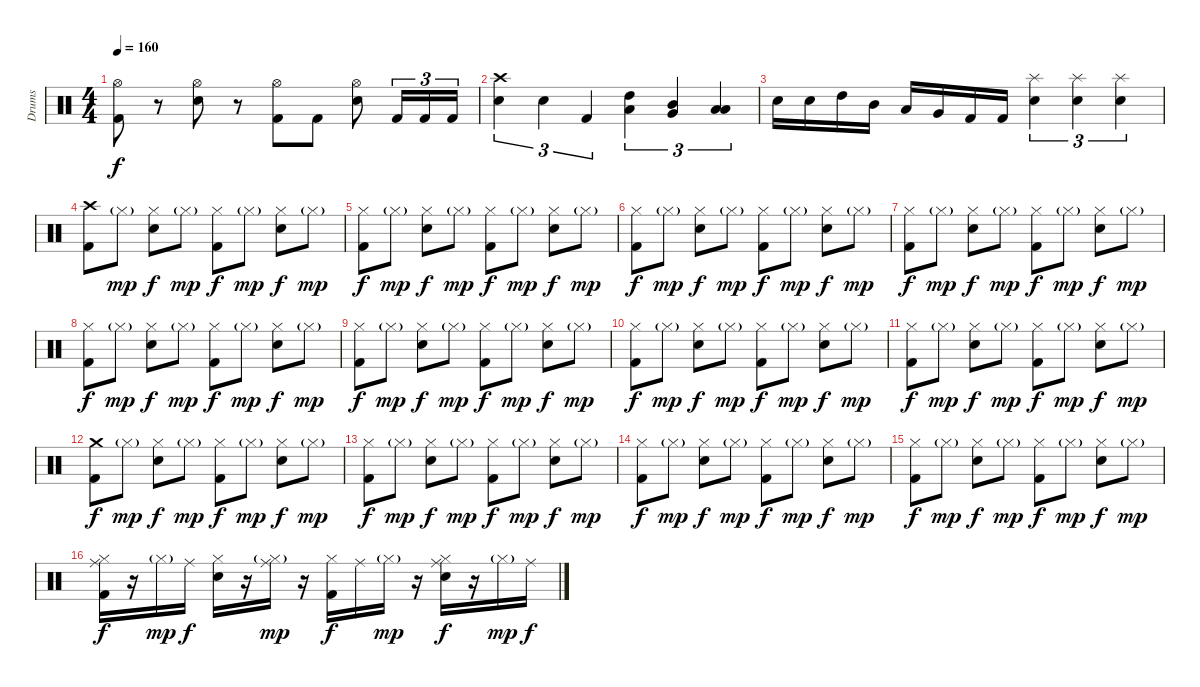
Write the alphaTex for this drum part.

\track ("Drums" "Drums") {instrument percussion}
\staff {score}
\articulation defaults
\ts (4 4)
\tempo 160
\clef neutral
\ks c
("Hi-Hat (open)" "Kick (hit) 2").8{dy f} r.8 ("Hi-Hat (open)" "Snare (hit) 2").8 r.8 ("Hi-Hat (open)" "Kick (hit) 2").8 "Kick (hit) 2".8 ("Hi-Hat (open)" "Snare (hit) 2").8 "Kick (hit) 2".16{tu (3 2)} "Kick (hit) 2".16{tu (3 2)} "Kick (hit) 2".16{tu (3 2)} |
("Crash high (hit)" "Snare (hit) 2").4{tu (3 2)} "Snare (hit) 2".4{tu (3 2)} "Kick (hit) 2".4{tu (3 2)} ("High Tom (hit)" "Low Tom (hit)").4{tu (3 2)} ("Mid Tom (hit)" "Very Low Tom (hit)").4{tu (3 2)} ("Low Tom (hit)" "Low Floor Tom (hit)").4{tu (3 2)} |
"Snare (hit) 2".16 "Snare (hit) 2".16 "High Tom (hit)".16 "Mid Tom (hit)".16 "Low Tom (hit)".16 "Very Low Tom (hit)".16 "Kick (hit) 2".16 "Kick (hit) 2".16 ("Splash (hit)" "Snare (hit) 2").4{tu (3 2)} ("Splash (hit)" "Snare (hit) 2").4{tu (3 2)} ("Splash (hit)" "Snare (hit) 2").4{tu (3 2)} |
("Crash high (hit)" "Kick (hit) 2").8 "Hi-Hat (closed)"{g}.8{dy mp} ("Hi-Hat (closed)" "Snare (hit) 2").8{dy f} "Hi-Hat (closed)"{g}.8{dy mp} ("Hi-Hat (closed)" "Kick (hit) 2").8{dy f} "Hi-Hat (closed)"{g}.8{dy mp} ("Hi-Hat (closed)" "Snare (hit) 2").8{dy f} "Hi-Hat (closed)"{g}.8{dy mp} |
("Hi-Hat (closed)" "Kick (hit) 2").8{dy f} "Hi-Hat (closed)"{g}.8{dy mp} ("Hi-Hat (closed)" "Snare (hit) 2").8{dy f} "Hi-Hat (closed)"{g}.8{dy mp} ("Hi-Hat (closed)" "Kick (hit) 2").8{dy f} "Hi-Hat (closed)"{g}.8{dy mp} ("Hi-Hat (closed)" "Snare (hit) 2").8{dy f} "Hi-Hat (closed)"{g}.8{dy mp} |
("Hi-Hat (closed)" "Kick (hit) 2").8{dy f} "Hi-Hat (closed)"{g}.8{dy mp} ("Hi-Hat (closed)" "Snare (hit) 2").8{dy f} "Hi-Hat (closed)"{g}.8{dy mp} ("Hi-Hat (closed)" "Kick (hit) 2").8{dy f} "Hi-Hat (closed)"{g}.8{dy mp} ("Hi-Hat (closed)" "Snare (hit) 2").8{dy f} "Hi-Hat (closed)"{g}.8{dy mp} |
("Hi-Hat (closed)" "Kick (hit) 2").8{dy f} "Hi-Hat (closed)"{g}.8{dy mp} ("Hi-Hat (closed)" "Snare (hit) 2").8{dy f} "Hi-Hat (closed)"{g}.8{dy mp} ("Hi-Hat (closed)" "Kick (hit) 2").8{dy f} "Hi-Hat (closed)"{g}.8{dy mp} ("Hi-Hat (closed)" "Snare (hit) 2").8{dy f} "Hi-Hat (closed)"{g}.8{dy mp} |
("Hi-Hat (closed)" "Kick (hit) 2").8{dy f} "Hi-Hat (closed)"{g}.8{dy mp} ("Hi-Hat (closed)" "Snare (hit) 2").8{dy f} "Hi-Hat (closed)"{g}.8{dy mp} ("Hi-Hat (closed)" "Kick (hit) 2").8{dy f} "Hi-Hat (closed)"{g}.8{dy mp} ("Hi-Hat (closed)" "Snare (hit) 2").8{dy f} "Hi-Hat (closed)"{g}.8{dy mp} |
("Hi-Hat (closed)" "Kick (hit) 2").8{dy f} "Hi-Hat (closed)"{g}.8{dy mp} ("Hi-Hat (closed)" "Snare (hit) 2").8{dy f} "Hi-Hat (closed)"{g}.8{dy mp} ("Hi-Hat (closed)" "Kick (hit) 2").8{dy f} "Hi-Hat (closed)"{g}.8{dy mp} ("Hi-Hat (closed)" "Snare (hit) 2").8{dy f} "Hi-Hat (closed)"{g}.8{dy mp} |
("Hi-Hat (closed)" "Kick (hit) 2").8{dy f} "Hi-Hat (closed)"{g}.8{dy mp} ("Hi-Hat (closed)" "Snare (hit) 2").8{dy f} "Hi-Hat (closed)"{g}.8{dy mp} ("Hi-Hat (closed)" "Kick (hit) 2").8{dy f} "Hi-Hat (closed)"{g}.8{dy mp} ("Hi-Hat (closed)" "Snare (hit) 2").8{dy f} "Hi-Hat (closed)"{g}.8{dy mp} |
("Hi-Hat (closed)" "Kick (hit) 2").8{dy f} "Hi-Hat (closed)"{g}.8{dy mp} ("Hi-Hat (closed)" "Snare (hit) 2").8{dy f} "Hi-Hat (closed)"{g}.8{dy mp} ("Hi-Hat (closed)" "Kick (hit) 2").8{dy f} "Hi-Hat (closed)"{g}.8{dy mp} ("Hi-Hat (closed)" "Snare (hit) 2").8{dy f} "Hi-Hat (closed)"{g}.8{dy mp} |
("Crash medium (hit)" "Kick (hit) 2").8{dy f} "Hi-Hat (closed)"{g}.8{dy mp} ("Hi-Hat (closed)" "Snare (hit) 2").8{dy f} "Hi-Hat (closed)"{g}.8{dy mp} ("Hi-Hat (closed)" "Kick (hit) 2").8{dy f} "Hi-Hat (closed)"{g}.8{dy mp} ("Hi-Hat (closed)" "Snare (hit) 2").8{dy f} "Hi-Hat (closed)"{g}.8{dy mp} |
("Hi-Hat (closed)" "Kick (hit) 2").8{dy f} "Hi-Hat (closed)"{g}.8{dy mp} ("Hi-Hat (closed)" "Snare (hit) 2").8{dy f} "Hi-Hat (closed)"{g}.8{dy mp} ("Hi-Hat (closed)" "Kick (hit) 2").8{dy f} "Hi-Hat (closed)"{g}.8{dy mp} ("Hi-Hat (closed)" "Snare (hit) 2").8{dy f} "Hi-Hat (closed)"{g}.8{dy mp} |
("Hi-Hat (closed)" "Kick (hit) 2").8{dy f} "Hi-Hat (closed)"{g}.8{dy mp} ("Hi-Hat (closed)" "Snare (hit) 2").8{dy f} "Hi-Hat (closed)"{g}.8{dy mp} ("Hi-Hat (closed)" "Kick (hit) 2").8{dy f} "Hi-Hat (closed)"{g}.8{dy mp} ("Hi-Hat (closed)" "Snare (hit) 2").8{dy f} "Hi-Hat (closed)"{g}.8{dy mp} |
("Hi-Hat (closed)" "Kick (hit) 2").8{dy f} "Hi-Hat (closed)"{g}.8{dy mp} ("Hi-Hat (closed)" "Snare (hit) 2").8{dy f} "Hi-Hat (closed)"{g}.8{dy mp} ("Hi-Hat (closed)" "Kick (hit) 2").8{dy f} "Hi-Hat (closed)"{g}.8{dy mp} ("Hi-Hat (closed)" "Snare (hit) 2").8{dy f} "Hi-Hat (closed)"{g}.8{dy mp} |
("Ride (middle)" "Hi-Hat (closed)" "Kick (hit) 2").16{dy f} r.16 "Hi-Hat (closed)"{g}.16{dy mp} "Ride (middle)".16{dy f} ("Hi-Hat (closed)" "Snare (hit) 2").16 r.16 ("Ride (middle)" "Hi-Hat (closed)"{g}).16{dy mp} r.16 ("Hi-Hat (closed)" "Kick (hit) 2").16{dy f} "Ride (middle)".16 "Hi-Hat (closed)"{g}.16{dy mp} r.16 ("Ride (middle)" "Hi-Hat (closed)" "Snare (hit) 2").16{dy f} r.16 "Hi-Hat (closed)"{g}.16{dy mp} "Ride (middle)".16{dy f}
